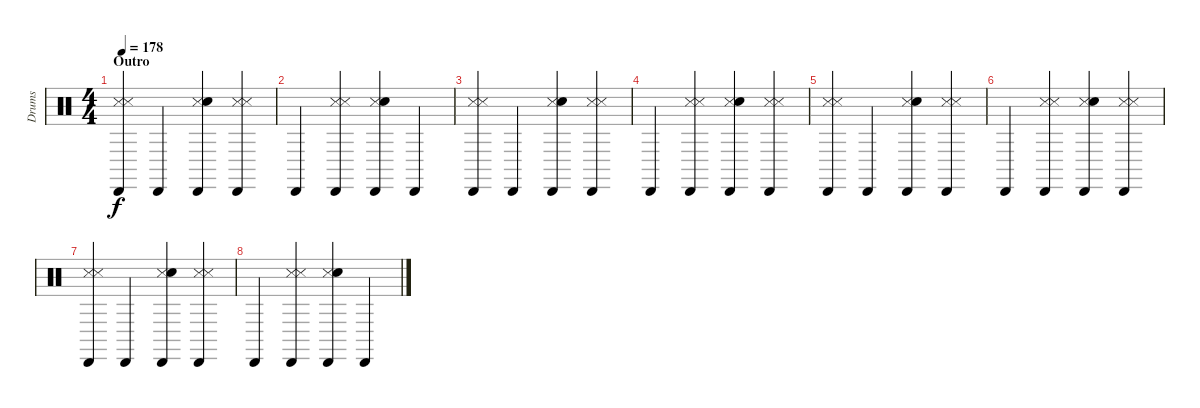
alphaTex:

\track ("Drums" "Drums") {instrument percussion}
\staff {score}
\articulation defaults
\ts (4 4)
\section ("" "Outro")
\tempo 178
\clef neutral
\ks c
("Cabasa (hit)" "Snare (side stick) 3" "Metronome (hit)").4{dy f volume 5 balance 6} "Cabasa (hit)".4 ("Cabasa (hit)" "Snare (side stick) 3" "Electric Snare (hit)").4 ("Cabasa (hit)" "Snare (side stick) 3" "Metronome (hit)").4 |
"Cabasa (hit)".4 ("Cabasa (hit)" "Snare (side stick) 3" "Metronome (hit)").4 ("Cabasa (hit)" "Snare (side stick) 3" "Electric Snare (hit)").4 "Cabasa (hit)".4 |
("Cabasa (hit)" "Snare (side stick) 3" "Metronome (hit)").4 "Cabasa (hit)".4 ("Cabasa (hit)" "Snare (side stick) 3" "Electric Snare (hit)").4 ("Cabasa (hit)" "Snare (side stick) 3" "Metronome (hit)").4 |
"Cabasa (hit)".4 ("Cabasa (hit)" "Snare (side stick) 3" "Metronome (hit)").4 ("Cabasa (hit)" "Snare (side stick) 3" "Electric Snare (hit)").4 ("Cabasa (hit)" "Snare (side stick) 3" "Metronome (hit)").4 |
("Cabasa (hit)" "Snare (side stick) 3" "Metronome (hit)").4 "Cabasa (hit)".4 ("Cabasa (hit)" "Snare (side stick) 3" "Electric Snare (hit)").4 ("Cabasa (hit)" "Snare (side stick) 3" "Metronome (hit)").4 |
"Cabasa (hit)".4 ("Cabasa (hit)" "Snare (side stick) 3" "Metronome (hit)").4 ("Cabasa (hit)" "Snare (side stick) 3" "Electric Snare (hit)").4 ("Cabasa (hit)" "Snare (side stick) 3" "Metronome (hit)").4 |
("Cabasa (hit)" "Snare (side stick) 3" "Metronome (hit)").4 "Cabasa (hit)".4 ("Cabasa (hit)" "Snare (side stick) 3" "Electric Snare (hit)").4 ("Cabasa (hit)" "Snare (side stick) 3" "Metronome (hit)").4 |
"Cabasa (hit)".4 ("Cabasa (hit)" "Snare (side stick) 3" "Metronome (hit)").4 ("Cabasa (hit)" "Snare (side stick) 3" "Electric Snare (hit)").4 "Cabasa (hit)".4
